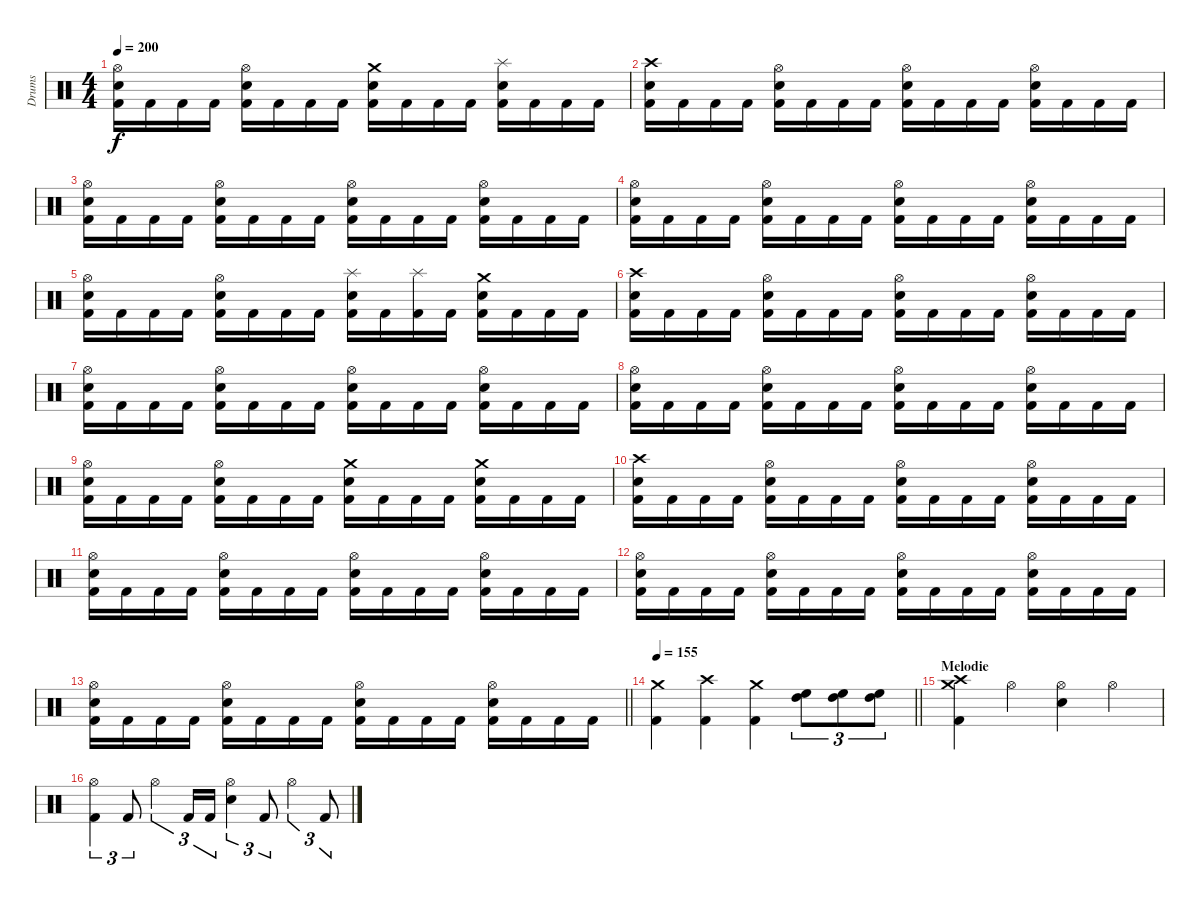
\track ("Drums" "Drums") {instrument percussion}
\staff {score}
\articulation defaults
\ts (4 4)
\tempo 200
\clef neutral
\ks c
("Hi-Hat (open)" "Electric Snare (hit)" "Kick (hit) 2").16{dy f} "Kick (hit) 2".16 "Kick (hit) 2".16 "Kick (hit) 2".16 ("Hi-Hat (open)" "Electric Snare (hit)" "Kick (hit) 2").16 "Kick (hit) 2".16 "Kick (hit) 2".16 "Kick (hit) 2".16 ("Crash medium (hit)" "Electric Snare (hit)" "Kick (hit) 2").16 "Kick (hit) 2".16 "Kick (hit) 2".16 "Kick (hit) 2".16 ("Splash (hit)" "Electric Snare (hit)" "Kick (hit) 2").16 "Kick (hit) 2".16 "Kick (hit) 2".16 "Kick (hit) 2".16 |
("Crash high (hit)" "Electric Snare (hit)" "Kick (hit) 2").16 "Kick (hit) 2".16 "Kick (hit) 2".16 "Kick (hit) 2".16 ("Hi-Hat (open)" "Electric Snare (hit)" "Kick (hit) 2").16 "Kick (hit) 2".16 "Kick (hit) 2".16 "Kick (hit) 2".16 ("Hi-Hat (open)" "Electric Snare (hit)" "Kick (hit) 2").16 "Kick (hit) 2".16 "Kick (hit) 2".16 "Kick (hit) 2".16 ("Hi-Hat (open)" "Electric Snare (hit)" "Kick (hit) 2").16 "Kick (hit) 2".16 "Kick (hit) 2".16 "Kick (hit) 2".16 |
("Hi-Hat (open)" "Electric Snare (hit)" "Kick (hit) 2").16 "Kick (hit) 2".16 "Kick (hit) 2".16 "Kick (hit) 2".16 ("Hi-Hat (open)" "Electric Snare (hit)" "Kick (hit) 2").16 "Kick (hit) 2".16 "Kick (hit) 2".16 "Kick (hit) 2".16 ("Hi-Hat (open)" "Electric Snare (hit)" "Kick (hit) 2").16 "Kick (hit) 2".16 "Kick (hit) 2".16 "Kick (hit) 2".16 ("Hi-Hat (open)" "Electric Snare (hit)" "Kick (hit) 2").16 "Kick (hit) 2".16 "Kick (hit) 2".16 "Kick (hit) 2".16 |
("Hi-Hat (open)" "Electric Snare (hit)" "Kick (hit) 2").16 "Kick (hit) 2".16 "Kick (hit) 2".16 "Kick (hit) 2".16 ("Hi-Hat (open)" "Electric Snare (hit)" "Kick (hit) 2").16 "Kick (hit) 2".16 "Kick (hit) 2".16 "Kick (hit) 2".16 ("Hi-Hat (open)" "Electric Snare (hit)" "Kick (hit) 2").16 "Kick (hit) 2".16 "Kick (hit) 2".16 "Kick (hit) 2".16 ("Hi-Hat (open)" "Electric Snare (hit)" "Kick (hit) 2").16 "Kick (hit) 2".16 "Kick (hit) 2".16 "Kick (hit) 2".16 |
("Hi-Hat (open)" "Electric Snare (hit)" "Kick (hit) 2").16 "Kick (hit) 2".16 "Kick (hit) 2".16 "Kick (hit) 2".16 ("Hi-Hat (open)" "Electric Snare (hit)" "Kick (hit) 2").16 "Kick (hit) 2".16 "Kick (hit) 2".16 "Kick (hit) 2".16 ("Splash (hit)" "Electric Snare (hit)" "Kick (hit) 2").16 "Kick (hit) 2".16 ("Splash (hit)" "Kick (hit) 2").16 "Kick (hit) 2".16 ("Crash medium (hit)" "Electric Snare (hit)" "Kick (hit) 2").16 "Kick (hit) 2".16 "Kick (hit) 2".16 "Kick (hit) 2".16 |
("Crash high (hit)" "Electric Snare (hit)" "Kick (hit) 2").16 "Kick (hit) 2".16 "Kick (hit) 2".16 "Kick (hit) 2".16 ("Hi-Hat (open)" "Electric Snare (hit)" "Kick (hit) 2").16 "Kick (hit) 2".16 "Kick (hit) 2".16 "Kick (hit) 2".16 ("Hi-Hat (open)" "Electric Snare (hit)" "Kick (hit) 2").16 "Kick (hit) 2".16 "Kick (hit) 2".16 "Kick (hit) 2".16 ("Hi-Hat (open)" "Electric Snare (hit)" "Kick (hit) 2").16 "Kick (hit) 2".16 "Kick (hit) 2".16 "Kick (hit) 2".16 |
("Hi-Hat (open)" "Electric Snare (hit)" "Kick (hit) 2").16 "Kick (hit) 2".16 "Kick (hit) 2".16 "Kick (hit) 2".16 ("Hi-Hat (open)" "Electric Snare (hit)" "Kick (hit) 2").16 "Kick (hit) 2".16 "Kick (hit) 2".16 "Kick (hit) 2".16 ("Hi-Hat (open)" "Electric Snare (hit)" "Kick (hit) 2").16 "Kick (hit) 2".16 "Kick (hit) 2".16 "Kick (hit) 2".16 ("Hi-Hat (open)" "Electric Snare (hit)" "Kick (hit) 2").16 "Kick (hit) 2".16 "Kick (hit) 2".16 "Kick (hit) 2".16 |
("Hi-Hat (open)" "Electric Snare (hit)" "Kick (hit) 2").16 "Kick (hit) 2".16 "Kick (hit) 2".16 "Kick (hit) 2".16 ("Hi-Hat (open)" "Electric Snare (hit)" "Kick (hit) 2").16 "Kick (hit) 2".16 "Kick (hit) 2".16 "Kick (hit) 2".16 ("Hi-Hat (open)" "Electric Snare (hit)" "Kick (hit) 2").16 "Kick (hit) 2".16 "Kick (hit) 2".16 "Kick (hit) 2".16 ("Hi-Hat (open)" "Electric Snare (hit)" "Kick (hit) 2").16 "Kick (hit) 2".16 "Kick (hit) 2".16 "Kick (hit) 2".16 |
("Hi-Hat (open)" "Electric Snare (hit)" "Kick (hit) 2").16 "Kick (hit) 2".16 "Kick (hit) 2".16 "Kick (hit) 2".16 ("Hi-Hat (open)" "Electric Snare (hit)" "Kick (hit) 2").16 "Kick (hit) 2".16 "Kick (hit) 2".16 "Kick (hit) 2".16 ("Crash medium (hit)" "Electric Snare (hit)" "Kick (hit) 2").16 "Kick (hit) 2".16 "Kick (hit) 2".16 "Kick (hit) 2".16 ("Crash medium (hit)" "Electric Snare (hit)" "Kick (hit) 2").16 "Kick (hit) 2".16 "Kick (hit) 2".16 "Kick (hit) 2".16 |
("Crash high (hit)" "Electric Snare (hit)" "Kick (hit) 2").16 "Kick (hit) 2".16 "Kick (hit) 2".16 "Kick (hit) 2".16 ("Hi-Hat (open)" "Electric Snare (hit)" "Kick (hit) 2").16 "Kick (hit) 2".16 "Kick (hit) 2".16 "Kick (hit) 2".16 ("Hi-Hat (open)" "Electric Snare (hit)" "Kick (hit) 2").16 "Kick (hit) 2".16 "Kick (hit) 2".16 "Kick (hit) 2".16 ("Hi-Hat (open)" "Electric Snare (hit)" "Kick (hit) 2").16 "Kick (hit) 2".16 "Kick (hit) 2".16 "Kick (hit) 2".16 |
("Hi-Hat (open)" "Electric Snare (hit)" "Kick (hit) 2").16 "Kick (hit) 2".16 "Kick (hit) 2".16 "Kick (hit) 2".16 ("Hi-Hat (open)" "Electric Snare (hit)" "Kick (hit) 2").16 "Kick (hit) 2".16 "Kick (hit) 2".16 "Kick (hit) 2".16 ("Hi-Hat (open)" "Electric Snare (hit)" "Kick (hit) 2").16 "Kick (hit) 2".16 "Kick (hit) 2".16 "Kick (hit) 2".16 ("Hi-Hat (open)" "Electric Snare (hit)" "Kick (hit) 2").16 "Kick (hit) 2".16 "Kick (hit) 2".16 "Kick (hit) 2".16 |
("Hi-Hat (open)" "Electric Snare (hit)" "Kick (hit) 2").16 "Kick (hit) 2".16 "Kick (hit) 2".16 "Kick (hit) 2".16 ("Hi-Hat (open)" "Electric Snare (hit)" "Kick (hit) 2").16 "Kick (hit) 2".16 "Kick (hit) 2".16 "Kick (hit) 2".16 ("Hi-Hat (open)" "Electric Snare (hit)" "Kick (hit) 2").16 "Kick (hit) 2".16 "Kick (hit) 2".16 "Kick (hit) 2".16 ("Hi-Hat (open)" "Electric Snare (hit)" "Kick (hit) 2").16 "Kick (hit) 2".16 "Kick (hit) 2".16 "Kick (hit) 2".16 |
\barLineRight lightlight
("Hi-Hat (open)" "Electric Snare (hit)" "Kick (hit) 2").16 "Kick (hit) 2".16 "Kick (hit) 2".16 "Kick (hit) 2".16 ("Hi-Hat (open)" "Electric Snare (hit)" "Kick (hit) 2").16 "Kick (hit) 2".16 "Kick (hit) 2".16 "Kick (hit) 2".16 ("Hi-Hat (open)" "Electric Snare (hit)" "Kick (hit) 2").16 "Kick (hit) 2".16 "Kick (hit) 2".16 "Kick (hit) 2".16 ("Hi-Hat (open)" "Electric Snare (hit)" "Kick (hit) 2").16 "Kick (hit) 2".16 "Kick (hit) 2".16 "Kick (hit) 2".16 |
\tempo 155
\barLineRight lightlight
("Crash medium (hit)" "Kick (hit) 2").4 ("Crash high (hit)" "Kick (hit) 2").4 ("Crash medium (hit)" "Kick (hit) 2").4 ("High Floor Tom (hit)" "High Tom (hit)").8{tu (3 2)} ("High Floor Tom (hit)" "High Tom (hit)").8{tu (3 2)} ("High Floor Tom (hit)" "High Tom (hit)").8{tu (3 2)} |
\section ("" "Melodie")
("Crash medium (hit)" "Crash high (hit)" "Kick (hit) 2").4 "Hi-Hat (open)".4 ("Hi-Hat (open)" "Electric Snare (hit)").4 "Hi-Hat (open)".4 |
("Hi-Hat (open)" "Kick (hit) 2").4{tu (3 2)} "Kick (hit) 2".8{tu (3 2)} "Hi-Hat (open)".4{tu (3 2)} "Kick (hit) 2".16{tu (3 2)} "Kick (hit) 2".16{tu (3 2)} ("Hi-Hat (open)" "Electric Snare (hit)").4{tu (3 2)} "Kick (hit) 2".8{tu (3 2)} "Hi-Hat (open)".4{tu (3 2)} "Kick (hit) 2".8{tu (3 2)}
